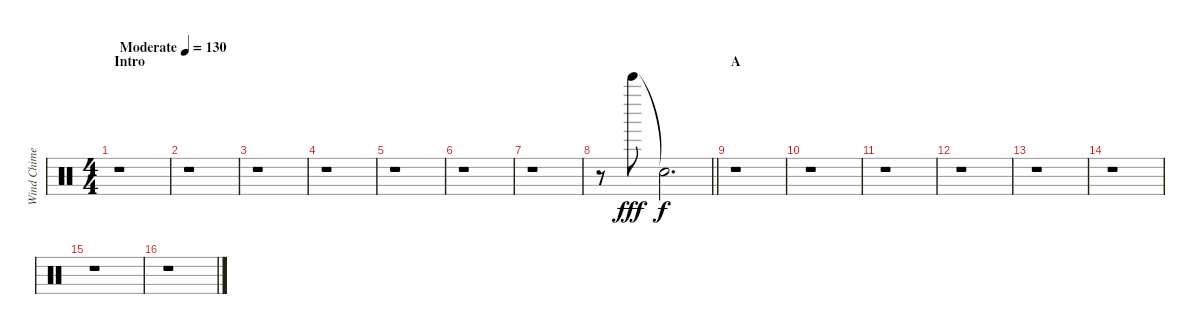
\track ("Wind Chime" "Wind Chime") {instrument percussion}
\staff {score}
\articulation defaults
\ts (4 4)
\section ("" "Intro")
\tempo (130 "Moderate")
\clef neutral
\ks c
r.1{dy fff} |
r.1 |
r.1 |
r.1 |
r.1 |
r.1 |
r.1 |
\barLineRight lightlight
r.8 "Bell Tree (hit)".8 "Snare (hit)"{t}.2{d dy f} |
\section ("" "A")
r.1 |
r.1 |
r.1 |
r.1 |
r.1 |
r.1 |
r.1 |
r.1
